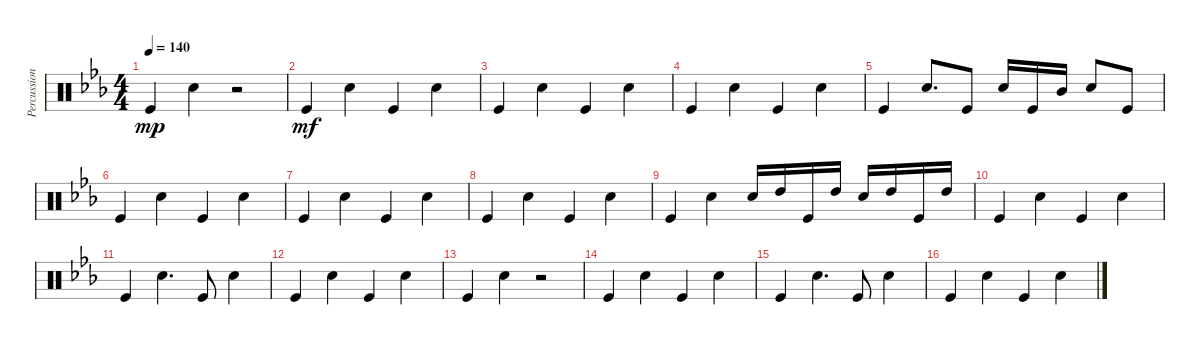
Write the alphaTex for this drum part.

\track ("Percussions" "Percussion") {instrument percussion}
\staff {score}
\articulation defaults
\ts (4 4)
\tempo 140
\clef neutral
\ks cminor "Kick (hit)".4{dy mp} "Snare (hit) 2".4
r.2 |
"Kick (hit)".4{dy mf} "Snare (hit) 2".4 "Kick (hit)".4 "Snare (hit) 2".4 |
"Kick (hit)".4 "Snare (hit) 2".4 "Kick (hit)".4 "Snare (hit) 2".4 |
"Kick (hit)".4 "Snare (hit) 2".4 "Kick (hit)".4 "Snare (hit) 2".4 |
"Kick (hit)".4 "Snare (hit) 2".8{d} "Kick (hit)".8 "Snare (hit) 2".16 "Kick (hit)".16 "Mid Tom (hit)".16 "Snare (hit) 2".8 "Kick (hit)".8 |
"Kick (hit)".4 "Snare (hit) 2".4 "Kick (hit)".4 "Snare (hit) 2".4 |
"Kick (hit)".4 "Snare (hit) 2".4 "Kick (hit)".4 "Snare (hit) 2".4 |
"Kick (hit)".4 "Snare (hit) 2".4 "Kick (hit)".4 "Snare (hit) 2".4 |
"Kick (hit)".4 "Snare (hit) 2".4 "Snare (hit) 2".16 "High Tom (hit)".16 "Kick (hit)".16 "High Tom (hit)".16 "Snare (hit) 2".16 "High Tom (hit)".16 "Kick (hit)".16 "High Tom (hit)".16 |
"Kick (hit)".4 "Snare (hit) 2".4 "Kick (hit)".4 "Snare (hit) 2".4 |
"Kick (hit)".4 "Snare (hit) 2".4{d} "Kick (hit)".8 "Snare (hit) 2".4 |
"Kick (hit)".4 "Snare (hit) 2".4 "Kick (hit)".4 "Snare (hit) 2".4 |
"Kick (hit)".4 "Snare (hit) 2".4 r.2 |
"Kick (hit)".4 "Snare (hit) 2".4 "Kick (hit)".4 "Snare (hit) 2".4 |
"Kick (hit)".4 "Snare (hit) 2".4{d} "Kick (hit)".8 "Snare (hit) 2".4 |
"Kick (hit)".4 "Snare (hit) 2".4 "Kick (hit)".4 "Snare (hit) 2".4
